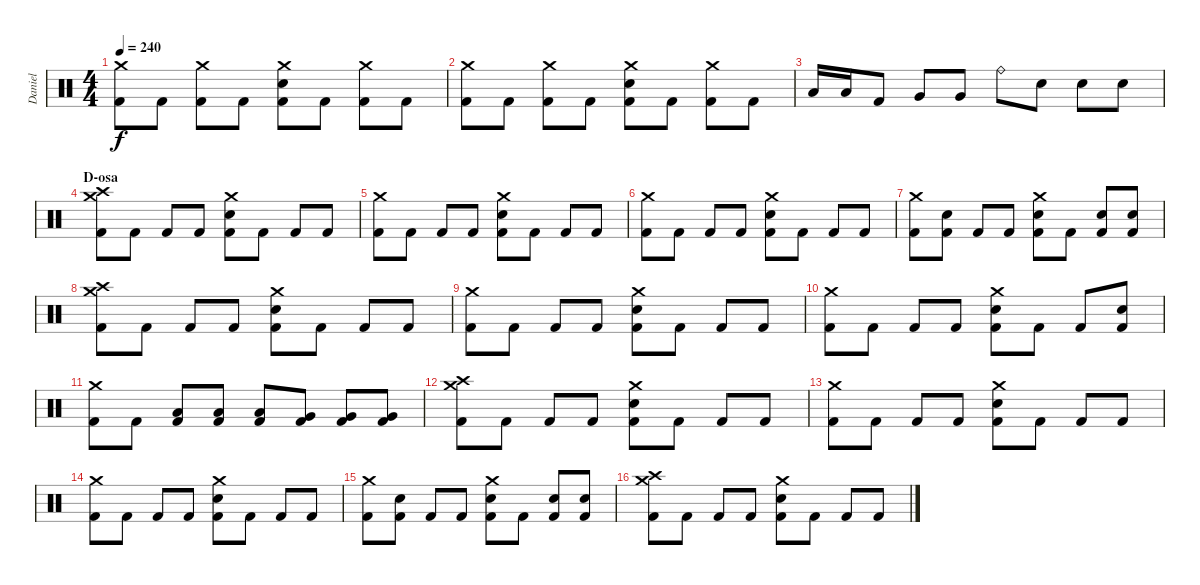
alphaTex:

\track ("Daniel" "Daniel") {instrument percussion}
\staff {score}
\articulation defaults
\ts (4 4)
\tempo 240
\clef neutral
\ks c
("Crash medium (hit)" "Kick (hit) 2").8{dy f} "Kick (hit) 2".8 ("Crash medium (hit)" "Kick (hit) 2").8 "Kick (hit) 2".8 ("Crash medium (hit)" "Electric Snare (hit)" "Kick (hit) 2").8 "Kick (hit) 2".8 ("Crash medium (hit)" "Kick (hit) 2").8 "Kick (hit) 2".8 |
("Crash medium (hit)" "Kick (hit) 2").8 "Kick (hit) 2".8 ("Crash medium (hit)" "Kick (hit) 2").8 "Kick (hit) 2".8 ("Crash medium (hit)" "Electric Snare (hit)" "Kick (hit) 2").8 "Kick (hit) 2".8 ("Crash medium (hit)" "Kick (hit) 2").8 "Kick (hit) 2".8 |
"Low Tom (hit)".16 "Low Tom (hit)".16 "Kick (hit) 2".8 "Very Low Tom (hit)".8 "Very Low Tom (hit)".8 "Ride (bell)".8 "Electric Snare (hit)".8 "Electric Snare (hit)".8 "Electric Snare (hit)".8 |
\section ("" "D-osa")
("Crash medium (hit)" "Crash high (hit)" "Kick (hit) 2").8 "Kick (hit) 2".8 "Kick (hit) 2".8 "Kick (hit) 2".8 ("Crash medium (hit)" "Electric Snare (hit)" "Kick (hit) 2").8 "Kick (hit) 2".8 "Kick (hit) 2".8 "Kick (hit) 2".8 |
("Crash medium (hit)" "Kick (hit) 2").8 "Kick (hit) 2".8 "Kick (hit) 2".8 "Kick (hit) 2".8 ("Crash medium (hit)" "Electric Snare (hit)" "Kick (hit) 2").8 "Kick (hit) 2".8 "Kick (hit) 2".8 "Kick (hit) 2".8 |
("Crash medium (hit)" "Kick (hit) 2").8 "Kick (hit) 2".8 "Kick (hit) 2".8 "Kick (hit) 2".8 ("Crash medium (hit)" "Electric Snare (hit)" "Kick (hit) 2").8 "Kick (hit) 2".8 "Kick (hit) 2".8 "Kick (hit) 2".8 |
("Crash medium (hit)" "Kick (hit) 2").8 ("Electric Snare (hit)" "Kick (hit) 2").8 "Kick (hit) 2".8 "Kick (hit) 2".8 ("Crash medium (hit)" "Electric Snare (hit)" "Kick (hit) 2").8 "Kick (hit) 2".8 ("Electric Snare (hit)" "Kick (hit) 2").8 ("Electric Snare (hit)" "Kick (hit) 2").8 |
("Crash medium (hit)" "Crash high (hit)" "Kick (hit) 2").8 "Kick (hit) 2".8 "Kick (hit) 2".8 "Kick (hit) 2".8 ("Crash medium (hit)" "Electric Snare (hit)" "Kick (hit) 2").8 "Kick (hit) 2".8 "Kick (hit) 2".8 "Kick (hit) 2".8 |
("Crash medium (hit)" "Kick (hit) 2").8 "Kick (hit) 2".8 "Kick (hit) 2".8 "Kick (hit) 2".8 ("Crash medium (hit)" "Electric Snare (hit)" "Kick (hit) 2").8 "Kick (hit) 2".8 "Kick (hit) 2".8 "Kick (hit) 2".8 |
("Crash medium (hit)" "Kick (hit) 2").8 "Kick (hit) 2".8 "Kick (hit) 2".8 "Kick (hit) 2".8 ("Crash medium (hit)" "Electric Snare (hit)" "Kick (hit) 2").8 "Kick (hit) 2".8 "Kick (hit) 2".8 ("Electric Snare (hit)" "Kick (hit) 2").8 |
("Crash medium (hit)" "Kick (hit) 2").8 "Kick (hit) 2".8 ("Low Tom (hit)" "Kick (hit) 2").8 ("Low Tom (hit)" "Kick (hit) 2").8 ("Low Tom (hit)" "Kick (hit) 2").8 ("Very Low Tom (hit)" "Kick (hit) 2").8 ("Very Low Tom (hit)" "Kick (hit) 2").8 ("Very Low Tom (hit)" "Kick (hit) 2").8 |
("Crash medium (hit)" "Crash high (hit)" "Kick (hit) 2").8 "Kick (hit) 2".8 "Kick (hit) 2".8 "Kick (hit) 2".8 ("Crash medium (hit)" "Electric Snare (hit)" "Kick (hit) 2").8 "Kick (hit) 2".8 "Kick (hit) 2".8 "Kick (hit) 2".8 |
("Crash medium (hit)" "Kick (hit) 2").8 "Kick (hit) 2".8 "Kick (hit) 2".8 "Kick (hit) 2".8 ("Crash medium (hit)" "Electric Snare (hit)" "Kick (hit) 2").8 "Kick (hit) 2".8 "Kick (hit) 2".8 "Kick (hit) 2".8 |
("Crash medium (hit)" "Kick (hit) 2").8 "Kick (hit) 2".8 "Kick (hit) 2".8 "Kick (hit) 2".8 ("Crash medium (hit)" "Electric Snare (hit)" "Kick (hit) 2").8 "Kick (hit) 2".8 "Kick (hit) 2".8 "Kick (hit) 2".8 |
("Crash medium (hit)" "Kick (hit) 2").8 ("Electric Snare (hit)" "Kick (hit) 2").8 "Kick (hit) 2".8 "Kick (hit) 2".8 ("Crash medium (hit)" "Electric Snare (hit)" "Kick (hit) 2").8 "Kick (hit) 2".8 ("Electric Snare (hit)" "Kick (hit) 2").8 ("Electric Snare (hit)" "Kick (hit) 2").8 |
("Crash medium (hit)" "Crash high (hit)" "Kick (hit) 2").8 "Kick (hit) 2".8 "Kick (hit) 2".8 "Kick (hit) 2".8 ("Crash medium (hit)" "Electric Snare (hit)" "Kick (hit) 2").8 "Kick (hit) 2".8 "Kick (hit) 2".8 "Kick (hit) 2".8
